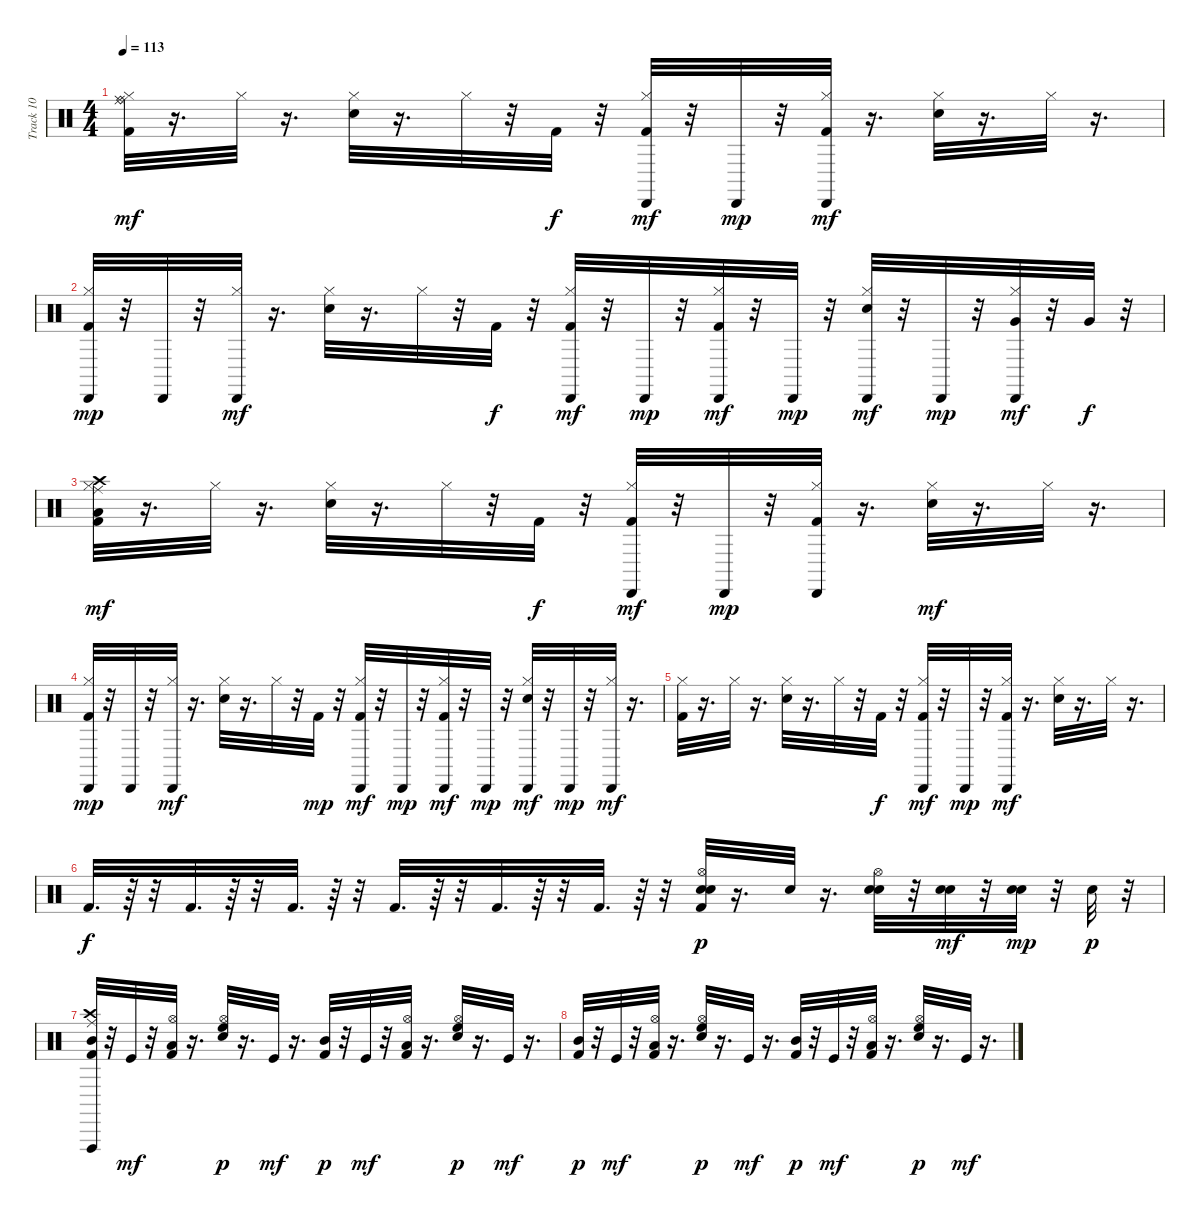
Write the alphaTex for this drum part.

\track ("Track 10" "Track 10") {instrument percussion}
\staff {score}
\articulation defaults
\ts (4 4)
\tempo 113
\clef neutral
\ks c
("Ride (bell)" "Ride (middle)" "Hi-Hat (closed)" "Kick (hit) 2").32{dy mf} r.16{d} "Hi-Hat (closed)".32 r.16{d} ("Hi-Hat (closed)" "Snare (hit) 2").32 r.16{d} "Hi-Hat (closed)".32 r.32 "Kick (hit) 2".32{dy f} r.32 ("Cabasa (hit)" "Hi-Hat (closed)" "Kick (hit) 2").32{dy mf} r.32 "Cabasa (hit)".32{dy mp} r.32 ("Cabasa (hit)" "Hi-Hat (closed)" "Kick (hit) 2").32{dy mf} r.16{d} ("Hi-Hat (closed)" "Snare (hit) 2").32 r.16{d} "Hi-Hat (closed)".32 r.16{d} |
("Hi-Hat (closed)" "Kick (hit) 2" "Cabasa (hit)").32{dy mp} r.32 "Cabasa (hit)".32 r.32 ("Cabasa (hit)" "Hi-Hat (closed)").32{dy mf} r.16{d} ("Snare (hit) 2" "Hi-Hat (closed)").32 r.16{d} "Hi-Hat (closed)".32 r.32 "Kick (hit) 2".32{dy f} r.32 ("Cabasa (hit)" "Hi-Hat (closed)" "Kick (hit) 2").32{dy mf} r.32 "Cabasa (hit)".32{dy mp} r.32 ("Cabasa (hit)" "Kick (hit) 2" "Hi-Hat (closed)").32{dy mf} r.32 "Cabasa (hit)".32{dy mp} r.32 ("Cabasa (hit)" "Snare (hit) 2" "Hi-Hat (closed)").32{dy mf} r.32 "Cabasa (hit)".32{dy mp} r.32 ("Cabasa (hit)" "Very Low Tom (hit)" "Hi-Hat (closed)").32{dy mf} r.32 "Very Low Tom (hit)".32{dy f} r.32 |
("Ride (middle)" "Low Floor Tom (hit)" "Hi-Hat (closed)" "Kick (hit) 2" "Crash high (hit)").32{dy mf} r.16{d} "Hi-Hat (closed)".32 r.16{d} ("Hi-Hat (closed)" "Snare (hit) 2").32 r.16{d} "Hi-Hat (closed)".32 r.32 "Kick (hit) 2".32{dy f} r.32 ("Cabasa (hit)" "Hi-Hat (closed)" "Kick (hit) 2").32{dy mf} r.32 "Cabasa (hit)".32{dy mp} r.32 ("Hi-Hat (closed)" "Kick (hit) 2" "Cabasa (hit)").32 r.16{d} ("Hi-Hat (closed)" "Snare (hit) 2").32{dy mf} r.16{d} "Hi-Hat (closed)".32 r.16{d} |
("Hi-Hat (closed)" "Kick (hit) 2" "Cabasa (hit)").32{dy mp} r.32 "Cabasa (hit)".32 r.32 ("Cabasa (hit)" "Hi-Hat (closed)").32{dy mf} r.16{d} ("Hi-Hat (closed)" "Snare (hit) 2").32 r.16{d} "Hi-Hat (closed)".32 r.32 "Kick (hit) 2".32{dy mp} r.32 ("Cabasa (hit)" "Hi-Hat (closed)" "Kick (hit) 2").32{dy mf} r.32 "Cabasa (hit)".32{dy mp} r.32 ("Cabasa (hit)" "Kick (hit) 2" "Hi-Hat (closed)").32{dy mf} r.32 "Cabasa (hit)".32{dy mp} r.32 ("Cabasa (hit)" "Hi-Hat (closed)" "Snare (hit) 2").32{dy mf} r.32 "Cabasa (hit)".32{dy mp} r.32 ("Cabasa (hit)" "Hi-Hat (closed)").32{dy mf} r.16{d} |
("Kick (hit) 2" "Hi-Hat (closed)").32 r.16{d} "Hi-Hat (closed)".32 r.16{d} ("Hi-Hat (closed)" "Snare (hit) 2").32 r.16{d} "Hi-Hat (closed)".32 r.32 "Kick (hit) 2".32{dy f} r.32 ("Cabasa (hit)" "Hi-Hat (closed)" "Kick (hit) 2").32{dy mf} r.32 "Cabasa (hit)".32{dy mp} r.32 ("Cabasa (hit)" "Kick (hit) 2" "Hi-Hat (closed)").32{dy mf} r.16{d} ("Snare (hit) 2" "Hi-Hat (closed)").32 r.16{d} "Hi-Hat (closed)".32 r.16{d} |
"Kick (hit) 2".32{d dy f} r.64 r.32 "Kick (hit) 2".32{d} r.64 r.32 "Kick (hit) 2".32{d} r.64 r.32 "Kick (hit) 2".32{d} r.64 r.32 "Kick (hit) 2".32{d} r.64 r.32 "Kick (hit) 2".32{d} r.64 r.32 ("Hi-Hat (open)" "Snare (hit) 2" "Kick (hit) 2" "Electric Snare (hit)").32{dy p} r.16{d} "Snare (hit) 2".32 r.16{d} ("Hi-Hat (open)" "Electric Snare (hit)" "Snare (hit) 2").32 r.32 ("Electric Snare (hit)" "Snare (hit) 2").32{dy mf} r.32 ("Electric Snare (hit)" "Snare (hit) 2").32{dy mp} r.32 "Snare (hit) 2".32{dy p} r.32 |
("Mid Tom (hit)" "Vibraslap (hit)" "Ride (middle)" "Crash high (hit)" "Kick (hit) 2").32 r.32 "Kick (hit)".32{dy mf} r.32 ("Hi-Hat (open)" "Low Tom (hit)" "Kick (hit) 2").32 r.16{d} ("Hi-Hat (open)" "High Floor Tom (hit)" "Snare (hit) 2").32{dy p} r.16{d} "Kick (hit)".32{dy mf} r.16{d} ("Mid Tom (hit)" "Kick (hit) 2").32{dy p} r.32 "Kick (hit)".32{dy mf} r.32 ("Hi-Hat (open)" "Low Tom (hit)" "Kick (hit) 2").32 r.16{d} ("Hi-Hat (open)" "High Floor Tom (hit)" "Snare (hit) 2").32{dy p} r.16{d} "Kick (hit)".32{dy mf} r.16{d} |
("Mid Tom (hit)" "Kick (hit) 2").32{dy p} r.32 "Kick (hit)".32{dy mf} r.32 ("Hi-Hat (open)" "Low Tom (hit)" "Kick (hit) 2").32 r.16{d} ("Hi-Hat (open)" "High Floor Tom (hit)" "Snare (hit) 2").32{dy p} r.16{d} "Kick (hit)".32{dy mf} r.16{d} ("Mid Tom (hit)" "Kick (hit) 2").32{dy p} r.32 "Kick (hit)".32{dy mf} r.32 ("Low Tom (hit)" "Kick (hit) 2" "Hi-Hat (open)").32 r.16{d} ("Hi-Hat (open)" "High Floor Tom (hit)" "Snare (hit) 2").32{dy p} r.16{d} "Kick (hit)".32{dy mf} r.16{d}
